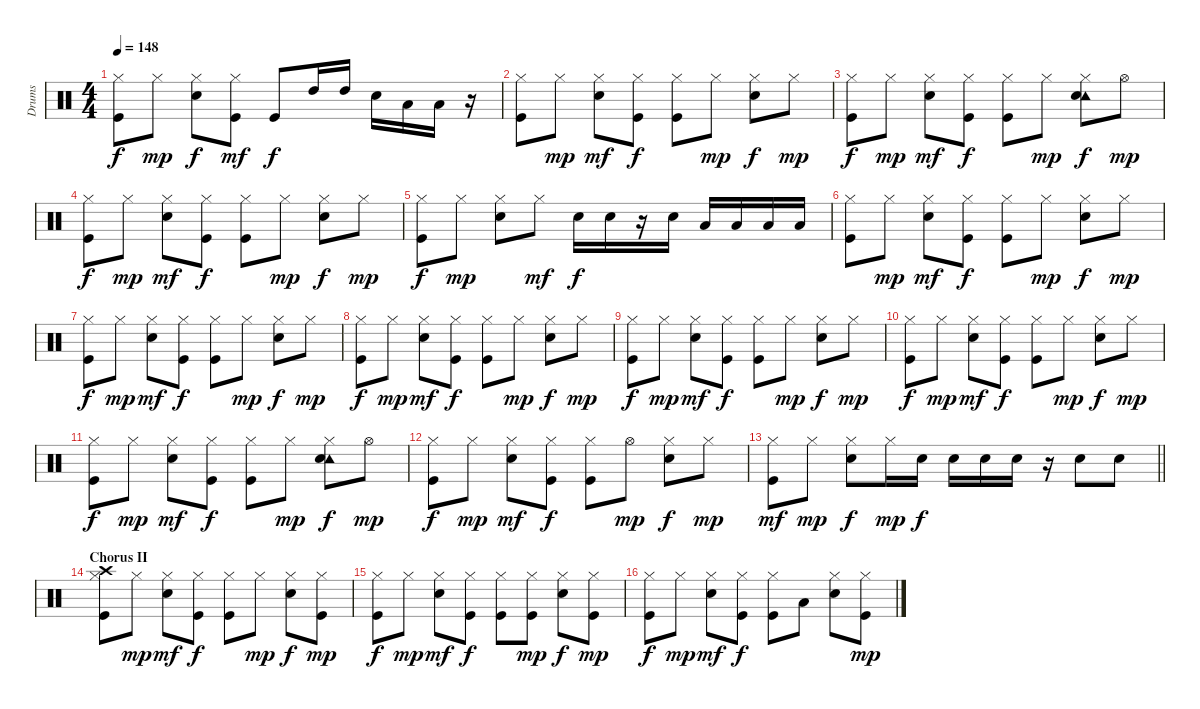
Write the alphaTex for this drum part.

\track ("Drums   " "Drums   ") {instrument percussion}
\staff {score}
\articulation defaults
\ts (4 4)
\tempo 148
\clef neutral
\ks c
("Hi-Hat (closed)" "Kick (hit)").8{dy f} "Hi-Hat (closed)".8{dy mp} ("Hi-Hat (closed)" "Snare (hit) 2").8{dy f} ("Hi-Hat (closed)" "Kick (hit)").8{dy mf} "Kick (hit)".8{dy f} "High Tom (hit)".16 "High Tom (hit)".16 "Snare (hit) 2".16 "Low Tom (hit)".16 "Low Floor Tom (hit)".16 r.16 |
("Hi-Hat (closed)" "Kick (hit)").8 "Hi-Hat (closed)".8{dy mp} ("Hi-Hat (closed)" "Snare (hit) 2").8{dy mf} ("Hi-Hat (closed)" "Kick (hit)").8{dy f} ("Hi-Hat (closed)" "Kick (hit)").8 "Hi-Hat (closed)".8{dy mp} ("Hi-Hat (closed)" "Snare (hit) 2").8{dy f} "Hi-Hat (closed)".8{dy mp} |
("Hi-Hat (closed)" "Kick (hit)").8{dy f} "Hi-Hat (closed)".8{dy mp} ("Hi-Hat (closed)" "Snare (hit) 2").8{dy mf} ("Hi-Hat (closed)" "Kick (hit)").8{dy f} ("Hi-Hat (closed)" "Kick (hit)").8 "Hi-Hat (closed)".8{dy mp} ("Hi-Hat (closed)" "Tambourine (hit)" "Snare (hit) 2").8{dy f} "Hi-Hat (open)".8{dy mp} |
("Hi-Hat (closed)" "Kick (hit)").8{dy f} "Hi-Hat (closed)".8{dy mp} ("Hi-Hat (closed)" "Snare (hit) 2").8{dy mf} ("Hi-Hat (closed)" "Kick (hit)").8{dy f} ("Hi-Hat (closed)" "Kick (hit)").8 "Hi-Hat (closed)".8{dy mp} ("Hi-Hat (closed)" "Snare (hit) 2").8{dy f} "Hi-Hat (closed)".8{dy mp} |
("Hi-Hat (closed)" "Kick (hit)").8{dy f} "Hi-Hat (closed)".8{dy mp} ("Hi-Hat (closed)" "Snare (hit) 2").8 "Hi-Hat (closed)".8{dy mf} "Snare (hit) 2".16{dy f} "Snare (hit) 2".16 r.16 "Snare (hit) 2".16 "Low Tom (hit)".16 "Low Tom (hit)".16 "Low Tom (hit)".16 "Low Tom (hit)".16 |
("Hi-Hat (closed)" "Kick (hit)").8 "Hi-Hat (closed)".8{dy mp} ("Hi-Hat (closed)" "Snare (hit) 2").8{dy mf} ("Hi-Hat (closed)" "Kick (hit)").8{dy f} ("Hi-Hat (closed)" "Kick (hit)").8 "Hi-Hat (closed)".8{dy mp} ("Hi-Hat (closed)" "Snare (hit) 2").8{dy f} "Hi-Hat (closed)".8{dy mp} |
("Hi-Hat (closed)" "Kick (hit)").8{dy f} "Hi-Hat (closed)".8{dy mp} ("Hi-Hat (closed)" "Snare (hit) 2").8{dy mf} ("Hi-Hat (closed)" "Kick (hit)").8{dy f} ("Hi-Hat (closed)" "Kick (hit)").8 "Hi-Hat (closed)".8{dy mp} ("Hi-Hat (closed)" "Snare (hit) 2").8{dy f} "Hi-Hat (closed)".8{dy mp} |
("Hi-Hat (closed)" "Kick (hit)").8{dy f} "Hi-Hat (closed)".8{dy mp} ("Hi-Hat (closed)" "Snare (hit) 2").8{dy mf} ("Hi-Hat (closed)" "Kick (hit)").8{dy f} ("Hi-Hat (closed)" "Kick (hit)").8 "Hi-Hat (closed)".8{dy mp} ("Hi-Hat (closed)" "Snare (hit) 2").8{dy f} "Hi-Hat (closed)".8{dy mp} |
("Hi-Hat (closed)" "Kick (hit)").8{dy f} "Hi-Hat (closed)".8{dy mp} ("Hi-Hat (closed)" "Snare (hit) 2").8{dy mf} ("Hi-Hat (closed)" "Kick (hit)").8{dy f} ("Hi-Hat (closed)" "Kick (hit)").8 "Hi-Hat (closed)".8{dy mp} ("Hi-Hat (closed)" "Snare (hit) 2").8{dy f} "Hi-Hat (closed)".8{dy mp} |
("Hi-Hat (closed)" "Kick (hit)").8{dy f} "Hi-Hat (closed)".8{dy mp} ("Hi-Hat (closed)" "Snare (hit) 2").8{dy mf} ("Hi-Hat (closed)" "Kick (hit)").8{dy f} ("Hi-Hat (closed)" "Kick (hit)").8 "Hi-Hat (closed)".8{dy mp} ("Hi-Hat (closed)" "Snare (hit) 2").8{dy f} "Hi-Hat (closed)".8{dy mp} |
("Hi-Hat (closed)" "Kick (hit)").8{dy f} "Hi-Hat (closed)".8{dy mp} ("Hi-Hat (closed)" "Snare (hit) 2").8{dy mf} ("Hi-Hat (closed)" "Kick (hit)").8{dy f} ("Hi-Hat (closed)" "Kick (hit)").8 "Hi-Hat (closed)".8{dy mp} ("Hi-Hat (closed)" "Tambourine (hit)" "Snare (hit) 2").8{dy f} "Hi-Hat (open)".8{dy mp} |
("Hi-Hat (closed)" "Kick (hit)").8{dy f} "Hi-Hat (closed)".8{dy mp} ("Hi-Hat (closed)" "Snare (hit) 2").8{dy mf} ("Hi-Hat (closed)" "Kick (hit)").8{dy f} ("Hi-Hat (closed)" "Kick (hit)").8 "Hi-Hat (open)".8{dy mp} ("Hi-Hat (closed)" "Snare (hit) 2").8{dy f} "Hi-Hat (closed)".8{dy mp} |
\barLineRight lightlight
("Hi-Hat (closed)" "Kick (hit)").8{dy mf} "Hi-Hat (closed)".8{dy mp} ("Hi-Hat (closed)" "Snare (hit) 2").8{dy f} "Hi-Hat (closed)".16{dy mp} "Snare (hit) 2".16{dy f} "Snare (hit) 2".16 "Snare (hit) 2".16 "Snare (hit) 2".16 r.16 "Snare (hit) 2".8 "Snare (hit) 2".8 |
\section ("" "Chorus II")
("Hi-Hat (closed)" "Crash high (hit)" "Kick (hit)").8 "Hi-Hat (closed)".8{dy mp} ("Hi-Hat (closed)" "Snare (hit) 2").8{dy mf} ("Hi-Hat (closed)" "Kick (hit)").8{dy f} ("Hi-Hat (closed)" "Kick (hit)").8 "Hi-Hat (closed)".8{dy mp} ("Hi-Hat (closed)" "Snare (hit) 2").8{dy f} ("Hi-Hat (closed)" "Kick (hit)").8{dy mp} |
("Hi-Hat (closed)" "Kick (hit)").8{dy f} "Hi-Hat (closed)".8{dy mp} ("Hi-Hat (closed)" "Snare (hit) 2").8{dy mf} ("Hi-Hat (closed)" "Kick (hit)").8{dy f} ("Hi-Hat (closed)" "Kick (hit)").8 ("Hi-Hat (closed)" "Kick (hit)").8{dy mp} ("Hi-Hat (closed)" "Snare (hit) 2").8{dy f} ("Hi-Hat (closed)" "Kick (hit)").8{dy mp} |
("Hi-Hat (closed)" "Kick (hit)").8{dy f} "Hi-Hat (closed)".8{dy mp} ("Hi-Hat (closed)" "Snare (hit) 2").8{dy mf} ("Hi-Hat (closed)" "Kick (hit)").8{dy f} ("Hi-Hat (closed)" "Kick (hit)").8 "Low Floor Tom (hit)".8 ("Hi-Hat (closed)" "Snare (hit) 2").8 ("Hi-Hat (closed)" "Kick (hit)").8{dy mp}
